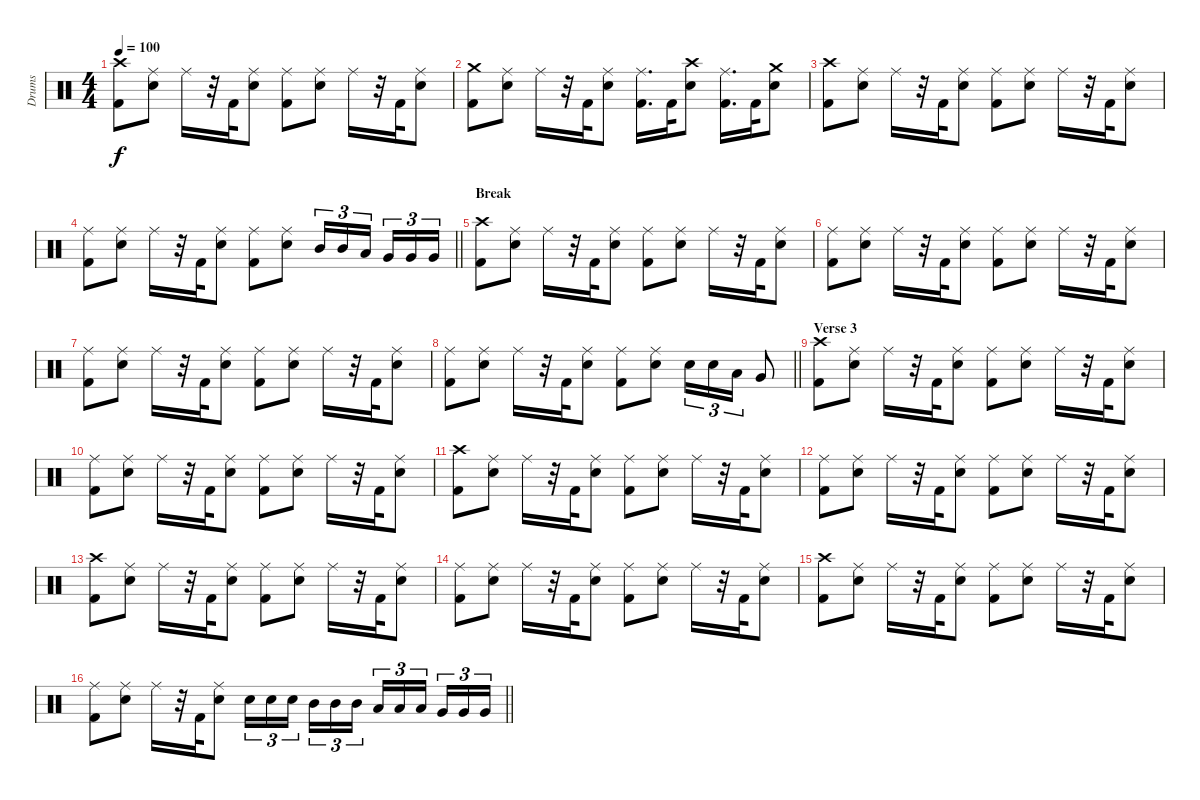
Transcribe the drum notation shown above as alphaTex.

\track ("Drums" "Drums") {instrument percussion}
\staff {score}
\articulation defaults
\ts (4 4)
\tempo 100
\clef neutral
\ks c
("Crash high (hit)" "Kick (hit) 2").8{dy f} ("Ride (middle)" "Snare (hit) 2").8 "Ride (middle)".16 r.32 "Kick (hit) 2".32 ("Ride (middle)" "Snare (hit) 2").8 ("Ride (middle)" "Kick (hit) 2").8 ("Ride (middle)" "Snare (hit) 2").8 "Ride (middle)".16 r.32 "Kick (hit) 2".32 ("Ride (middle)" "Snare (hit) 2").8 |
("Crash medium (hit)" "Kick (hit) 2").8 ("Ride (middle)" "Snare (hit) 2").8 "Ride (middle)".16 r.32 "Kick (hit) 2".32 ("Ride (middle)" "Snare (hit) 2").8 ("Ride (middle)" "Kick (hit) 2").16{d} "Kick (hit) 2".32 ("Crash high (hit)" "Snare (hit) 2").8 ("Ride (middle)" "Kick (hit) 2").16{d} "Kick (hit) 2".32 ("Crash medium (hit)" "Snare (hit) 2").8 |
("Crash high (hit)" "Kick (hit) 2").8 ("Ride (middle)" "Snare (hit) 2").8 "Ride (middle)".16 r.32 "Kick (hit) 2".32 ("Ride (middle)" "Snare (hit) 2").8 ("Ride (middle)" "Kick (hit) 2").8 ("Ride (middle)" "Snare (hit) 2").8 "Ride (middle)".16 r.32 "Kick (hit) 2".32 ("Ride (middle)" "Snare (hit) 2").8 |
\barLineRight lightlight
("Ride (middle)" "Kick (hit) 2").8 ("Ride (middle)" "Snare (hit) 2").8 "Ride (middle)".16 r.32 "Kick (hit) 2".32 ("Ride (middle)" "Snare (hit) 2").8 ("Ride (middle)" "Kick (hit) 2").8 ("Ride (middle)" "Snare (hit) 2").8 "Mid Tom (hit)".16{tu (3 2)} "Mid Tom (hit)".16{tu (3 2)} "Low Tom (hit)".16{tu (3 2) beam splitsecondary} "Very Low Tom (hit)".16{tu (3 2)} "Very Low Tom (hit)".16{tu (3 2)} "Very Low Tom (hit)".16{tu (3 2)} |
\section ("" "Break")
("Crash high (hit)" "Kick (hit) 2").8 ("Ride (middle)" "Snare (hit) 2").8 "Ride (middle)".16 r.32 "Kick (hit) 2".32 ("Ride (middle)" "Snare (hit) 2").8 ("Ride (middle)" "Kick (hit) 2").8 ("Ride (middle)" "Snare (hit) 2").8 "Ride (middle)".16 r.32 "Kick (hit) 2".32 ("Ride (middle)" "Snare (hit) 2").8 |
("Ride (middle)" "Kick (hit) 2").8 ("Ride (middle)" "Snare (hit) 2").8 "Ride (middle)".16 r.32 "Kick (hit) 2".32 ("Ride (middle)" "Snare (hit) 2").8 ("Ride (middle)" "Kick (hit) 2").8 ("Ride (middle)" "Snare (hit) 2").8 "Ride (middle)".16 r.32 "Kick (hit) 2".32 ("Ride (middle)" "Snare (hit) 2").8 |
("Ride (middle)" "Kick (hit) 2").8 ("Ride (middle)" "Snare (hit) 2").8 "Ride (middle)".16 r.32 "Kick (hit) 2".32 ("Ride (middle)" "Snare (hit) 2").8 ("Ride (middle)" "Kick (hit) 2").8 ("Ride (middle)" "Snare (hit) 2").8 "Ride (middle)".16 r.32 "Kick (hit) 2".32 ("Ride (middle)" "Snare (hit) 2").8 |
\barLineRight lightlight
("Ride (middle)" "Kick (hit) 2").8 ("Ride (middle)" "Snare (hit) 2").8 "Ride (middle)".16 r.32 "Kick (hit) 2".32 ("Ride (middle)" "Snare (hit) 2").8 ("Ride (middle)" "Kick (hit) 2").8 ("Ride (middle)" "Snare (hit) 2").8 "Snare (hit) 2".16{tu (3 2)} "Snare (hit) 2".16{tu (3 2)} "Low Tom (hit)".16{tu (3 2)} "Very Low Tom (hit)".8 |
\section ("" "Verse 3")
("Crash high (hit)" "Kick (hit) 2").8 ("Ride (middle)" "Snare (hit) 2").8 "Ride (middle)".16 r.32 "Kick (hit) 2".32 ("Ride (middle)" "Snare (hit) 2").8 ("Ride (middle)" "Kick (hit) 2").8 ("Ride (middle)" "Snare (hit) 2").8 "Ride (middle)".16 r.32 "Kick (hit) 2".32 ("Ride (middle)" "Snare (hit) 2").8 |
("Ride (middle)" "Kick (hit) 2").8 ("Ride (middle)" "Snare (hit) 2").8 "Ride (middle)".16 r.32 "Kick (hit) 2".32 ("Ride (middle)" "Snare (hit) 2").8 ("Ride (middle)" "Kick (hit) 2").8 ("Ride (middle)" "Snare (hit) 2").8 "Ride (middle)".16 r.32 "Kick (hit) 2".32 ("Ride (middle)" "Snare (hit) 2").8 |
("Crash high (hit)" "Kick (hit) 2").8 ("Ride (middle)" "Snare (hit) 2").8 "Ride (middle)".16 r.32 "Kick (hit) 2".32 ("Ride (middle)" "Snare (hit) 2").8 ("Ride (middle)" "Kick (hit) 2").8 ("Ride (middle)" "Snare (hit) 2").8 "Ride (middle)".16 r.32 "Kick (hit) 2".32 ("Ride (middle)" "Snare (hit) 2").8 |
("Ride (middle)" "Kick (hit) 2").8 ("Ride (middle)" "Snare (hit) 2").8 "Ride (middle)".16 r.32 "Kick (hit) 2".32 ("Ride (middle)" "Snare (hit) 2").8 ("Ride (middle)" "Kick (hit) 2").8 ("Ride (middle)" "Snare (hit) 2").8 "Ride (middle)".16 r.32 "Kick (hit) 2".32 ("Ride (middle)" "Snare (hit) 2").8 |
("Crash high (hit)" "Kick (hit) 2").8 ("Ride (middle)" "Snare (hit) 2").8 "Ride (middle)".16 r.32 "Kick (hit) 2".32 ("Ride (middle)" "Snare (hit) 2").8 ("Ride (middle)" "Kick (hit) 2").8 ("Ride (middle)" "Snare (hit) 2").8 "Ride (middle)".16 r.32 "Kick (hit) 2".32 ("Ride (middle)" "Snare (hit) 2").8 |
("Ride (middle)" "Kick (hit) 2").8 ("Ride (middle)" "Snare (hit) 2").8 "Ride (middle)".16 r.32 "Kick (hit) 2".32 ("Ride (middle)" "Snare (hit) 2").8 ("Ride (middle)" "Kick (hit) 2").8 ("Ride (middle)" "Snare (hit) 2").8 "Ride (middle)".16 r.32 "Kick (hit) 2".32 ("Ride (middle)" "Snare (hit) 2").8 |
("Crash high (hit)" "Kick (hit) 2").8 ("Ride (middle)" "Snare (hit) 2").8 "Ride (middle)".16 r.32 "Kick (hit) 2".32 ("Ride (middle)" "Snare (hit) 2").8 ("Ride (middle)" "Kick (hit) 2").8 ("Ride (middle)" "Snare (hit) 2").8 "Ride (middle)".16 r.32 "Kick (hit) 2".32 ("Ride (middle)" "Snare (hit) 2").8 |
\barLineRight lightlight
("Ride (middle)" "Kick (hit) 2").8 ("Ride (middle)" "Snare (hit) 2").8 "Ride (middle)".16 r.32 "Kick (hit) 2".32 ("Ride (middle)" "Snare (hit) 2").8 "Snare (hit) 2".16{tu (3 2)} "Snare (hit) 2".16{tu (3 2)} "Snare (hit) 2".16{tu (3 2) beam splitsecondary} "Mid Tom (hit)".16{tu (3 2)} "Mid Tom (hit)".16{tu (3 2)} "Mid Tom (hit)".16{tu (3 2)} "Low Tom (hit)".16{tu (3 2)} "Low Tom (hit)".16{tu (3 2)} "Low Tom (hit)".16{tu (3 2) beam splitsecondary} "Very Low Tom (hit)".16{tu (3 2)} "Very Low Tom (hit)".16{tu (3 2)} "Very Low Tom (hit)".16{tu (3 2)}
